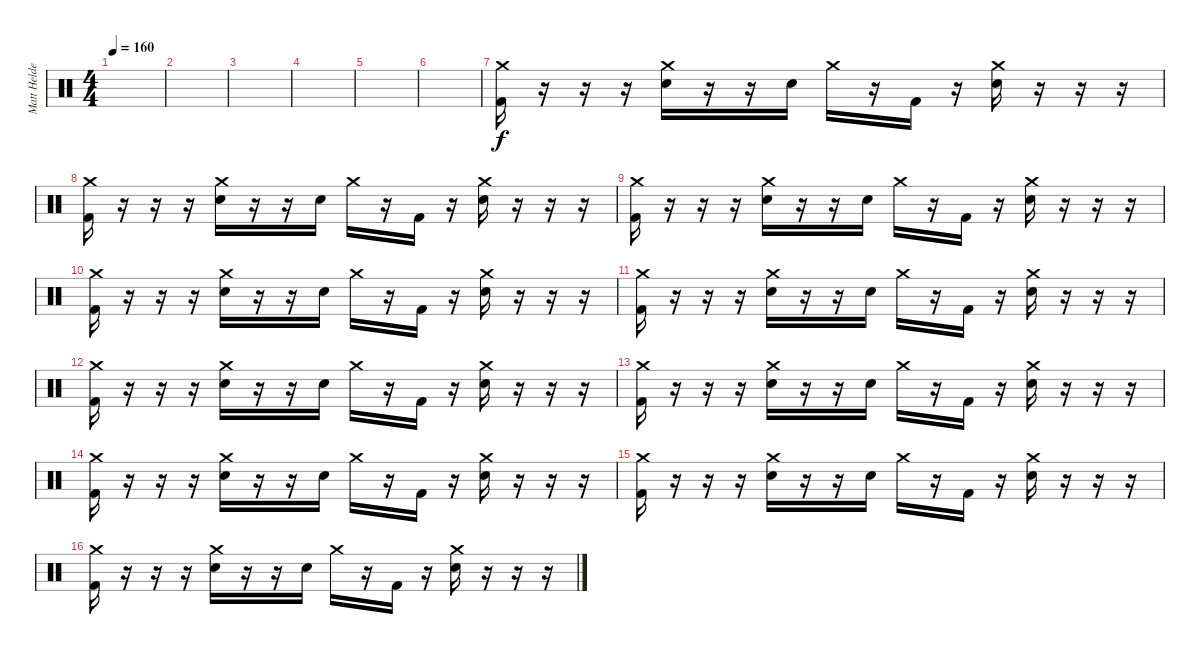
\track ("Matt Helders" "Matt Helde") {instrument percussion}
\staff {score}
\articulation defaults
\ts (4 4)
\tempo 160
\clef neutral
\ks c
|
|
|
|
|
|
("Crash medium (hit)" "Kick (hit) 2").16 r.16 r.16 r.16 ("Crash medium (hit)" "Snare (hit) 2").16 r.16 r.16 "Snare (hit) 2".16 "Crash medium (hit)".16 r.16 "Kick (hit) 2".16 r.16 ("Crash medium (hit)" "Snare (hit) 2").16 r.16 r.16 r.16 |
("Crash medium (hit)" "Kick (hit) 2").16 r.16 r.16 r.16 ("Crash medium (hit)" "Snare (hit) 2").16 r.16 r.16 "Snare (hit) 2".16 "Crash medium (hit)".16 r.16 "Kick (hit) 2".16 r.16 ("Crash medium (hit)" "Snare (hit) 2").16 r.16 r.16 r.16 |
("Crash medium (hit)" "Kick (hit) 2").16 r.16 r.16 r.16 ("Crash medium (hit)" "Snare (hit) 2").16 r.16 r.16 "Snare (hit) 2".16 "Crash medium (hit)".16 r.16 "Kick (hit) 2".16 r.16 ("Crash medium (hit)" "Snare (hit) 2").16 r.16 r.16 r.16 |
("Crash medium (hit)" "Kick (hit) 2").16 r.16 r.16 r.16 ("Crash medium (hit)" "Snare (hit) 2").16 r.16 r.16 "Snare (hit) 2".16 "Crash medium (hit)".16 r.16 "Kick (hit) 2".16 r.16 ("Crash medium (hit)" "Snare (hit) 2").16 r.16 r.16 r.16 |
("Crash medium (hit)" "Kick (hit) 2").16 r.16 r.16 r.16 ("Crash medium (hit)" "Snare (hit) 2").16 r.16 r.16 "Snare (hit) 2".16 "Crash medium (hit)".16 r.16 "Kick (hit) 2".16 r.16 ("Crash medium (hit)" "Snare (hit) 2").16 r.16 r.16 r.16 |
("Crash medium (hit)" "Kick (hit) 2").16 r.16 r.16 r.16 ("Crash medium (hit)" "Snare (hit) 2").16 r.16 r.16 "Snare (hit) 2".16 "Crash medium (hit)".16 r.16 "Kick (hit) 2".16 r.16 ("Crash medium (hit)" "Snare (hit) 2").16 r.16 r.16 r.16 |
("Crash medium (hit)" "Kick (hit) 2").16 r.16 r.16 r.16 ("Crash medium (hit)" "Snare (hit) 2").16 r.16 r.16 "Snare (hit) 2".16 "Crash medium (hit)".16 r.16 "Kick (hit) 2".16 r.16 ("Crash medium (hit)" "Snare (hit) 2").16 r.16 r.16 r.16 |
("Crash medium (hit)" "Kick (hit) 2").16 r.16 r.16 r.16 ("Crash medium (hit)" "Snare (hit) 2").16 r.16 r.16 "Snare (hit) 2".16 "Crash medium (hit)".16 r.16 "Kick (hit) 2".16 r.16 ("Crash medium (hit)" "Snare (hit) 2").16 r.16 r.16 r.16 |
("Crash medium (hit)" "Kick (hit) 2").16 r.16 r.16 r.16 ("Crash medium (hit)" "Snare (hit) 2").16 r.16 r.16 "Snare (hit) 2".16 "Crash medium (hit)".16 r.16 "Kick (hit) 2".16 r.16 ("Crash medium (hit)" "Snare (hit) 2").16 r.16 r.16 r.16 |
("Crash medium (hit)" "Kick (hit) 2").16 r.16 r.16 r.16 ("Crash medium (hit)" "Snare (hit) 2").16 r.16 r.16 "Snare (hit) 2".16 "Crash medium (hit)".16 r.16 "Kick (hit) 2".16 r.16 ("Crash medium (hit)" "Snare (hit) 2").16 r.16 r.16 r.16
